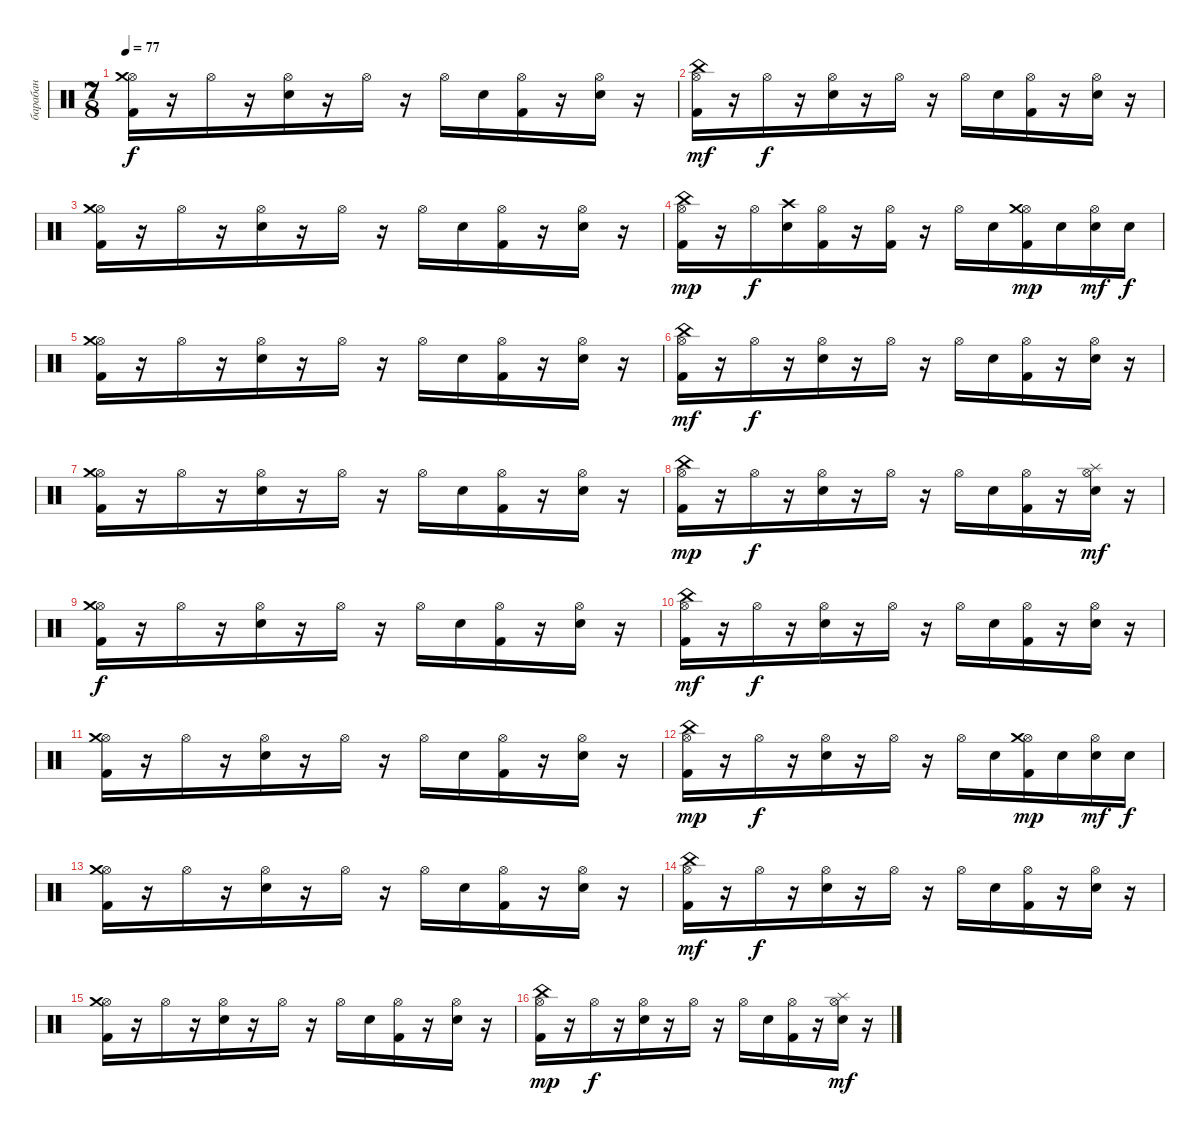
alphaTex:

\track ("барабан" "барабан") {instrument percussion}
\staff {score}
\articulation defaults
\ts (7 8)
\tempo 77
\clef neutral
\ks c
("Hi-Hat (open)" "Crash medium (hit)" "Kick (hit) 2").16{dy f} r.16 "Hi-Hat (open)".16 r.16 ("Hi-Hat (open)" "Electric Snare (hit)").16 r.16 "Hi-Hat (open)".16 r.16 "Hi-Hat (open)".16 "Electric Snare (hit)".16 ("Hi-Hat (open)" "Kick (hit) 2").16 r.16 ("Hi-Hat (open)" "Electric Snare (hit)").16 r.16 |
("Hi-Hat (open)" "China (hit)" "Kick (hit) 2").16{dy mf} r.16 "Hi-Hat (open)".16{dy f} r.16 ("Hi-Hat (open)" "Electric Snare (hit)").16 r.16 "Hi-Hat (open)".16 r.16 "Hi-Hat (open)".16 "Electric Snare (hit)".16 ("Hi-Hat (open)" "Kick (hit) 2").16 r.16 ("Hi-Hat (open)" "Electric Snare (hit)").16 r.16 |
("Hi-Hat (open)" "Crash medium (hit)" "Kick (hit) 2").16 r.16 "Hi-Hat (open)".16 r.16 ("Hi-Hat (open)" "Electric Snare (hit)").16 r.16 "Hi-Hat (open)".16 r.16 "Hi-Hat (open)".16 "Electric Snare (hit)".16 ("Hi-Hat (open)" "Kick (hit) 2").16 r.16 ("Hi-Hat (open)" "Electric Snare (hit)").16 r.16 |
("Hi-Hat (open)" "China (hit)" "Kick (hit) 2").16{dy mp} r.16 "Hi-Hat (open)".16{dy f} ("Crash high (hit)" "Electric Snare (hit)").16 ("Hi-Hat (open)" "Kick (hit) 2").16 r.16 ("Hi-Hat (open)" "Kick (hit) 2").16 r.16 "Hi-Hat (open)".16 "Electric Snare (hit)".16 ("Hi-Hat (open)" "Crash medium (hit)" "Kick (hit) 2").16{dy mp} "Electric Snare (hit)".16 ("Hi-Hat (open)" "Electric Snare (hit)").16{dy mf} "Electric Snare (hit)".16{dy f} |
("Hi-Hat (open)" "Crash medium (hit)" "Kick (hit) 2").16 r.16 "Hi-Hat (open)".16 r.16 ("Hi-Hat (open)" "Electric Snare (hit)").16 r.16 "Hi-Hat (open)".16 r.16 "Hi-Hat (open)".16 "Electric Snare (hit)".16 ("Hi-Hat (open)" "Kick (hit) 2").16 r.16 ("Hi-Hat (open)" "Electric Snare (hit)").16 r.16 |
("Hi-Hat (open)" "China (hit)" "Kick (hit) 2").16{dy mf} r.16 "Hi-Hat (open)".16{dy f} r.16 ("Hi-Hat (open)" "Electric Snare (hit)").16 r.16 "Hi-Hat (open)".16 r.16 "Hi-Hat (open)".16 "Electric Snare (hit)".16 ("Hi-Hat (open)" "Kick (hit) 2").16 r.16 ("Hi-Hat (open)" "Electric Snare (hit)").16 r.16 |
("Hi-Hat (open)" "Crash medium (hit)" "Kick (hit) 2").16 r.16 "Hi-Hat (open)".16 r.16 ("Hi-Hat (open)" "Electric Snare (hit)").16 r.16 "Hi-Hat (open)".16 r.16 "Hi-Hat (open)".16 "Electric Snare (hit)".16 ("Hi-Hat (open)" "Kick (hit) 2").16 r.16 ("Hi-Hat (open)" "Electric Snare (hit)").16 r.16 |
("Hi-Hat (open)" "China (hit)" "Kick (hit) 2").16{dy mp} r.16 "Hi-Hat (open)".16{dy f} r.16 ("Hi-Hat (open)" "Electric Snare (hit)").16 r.16 "Hi-Hat (open)".16 r.16 "Hi-Hat (open)".16 "Electric Snare (hit)".16 ("Hi-Hat (open)" "Kick (hit) 2").16 r.16 ("Hi-Hat (open)" "Splash (hit)" "Electric Snare (hit)").16{dy mf} r.16 |
("Hi-Hat (open)" "Crash medium (hit)" "Kick (hit) 2").16{dy f} r.16 "Hi-Hat (open)".16 r.16 ("Hi-Hat (open)" "Electric Snare (hit)").16 r.16 "Hi-Hat (open)".16 r.16 "Hi-Hat (open)".16 "Electric Snare (hit)".16 ("Hi-Hat (open)" "Kick (hit) 2").16 r.16 ("Hi-Hat (open)" "Electric Snare (hit)").16 r.16 |
("Hi-Hat (open)" "China (hit)" "Kick (hit) 2").16{dy mf} r.16 "Hi-Hat (open)".16{dy f} r.16 ("Hi-Hat (open)" "Electric Snare (hit)").16 r.16 "Hi-Hat (open)".16 r.16 "Hi-Hat (open)".16 "Electric Snare (hit)".16 ("Hi-Hat (open)" "Kick (hit) 2").16 r.16 ("Hi-Hat (open)" "Electric Snare (hit)").16 r.16 |
("Hi-Hat (open)" "Crash medium (hit)" "Kick (hit) 2").16 r.16 "Hi-Hat (open)".16 r.16 ("Hi-Hat (open)" "Electric Snare (hit)").16 r.16 "Hi-Hat (open)".16 r.16 "Hi-Hat (open)".16 "Electric Snare (hit)".16 ("Hi-Hat (open)" "Kick (hit) 2").16 r.16 ("Hi-Hat (open)" "Electric Snare (hit)").16 r.16 |
("Hi-Hat (open)" "China (hit)" "Kick (hit) 2").16{dy mp} r.16 "Hi-Hat (open)".16{dy f} r.16 ("Hi-Hat (open)" "Electric Snare (hit)").16 r.16 "Hi-Hat (open)".16 r.16 "Hi-Hat (open)".16 "Electric Snare (hit)".16 ("Hi-Hat (open)" "Crash medium (hit)" "Kick (hit) 2").16{dy mp} "Electric Snare (hit)".16 ("Hi-Hat (open)" "Electric Snare (hit)").16{dy mf} "Electric Snare (hit)".16{dy f} |
("Hi-Hat (open)" "Crash medium (hit)" "Kick (hit) 2").16 r.16 "Hi-Hat (open)".16 r.16 ("Hi-Hat (open)" "Electric Snare (hit)").16 r.16 "Hi-Hat (open)".16 r.16 "Hi-Hat (open)".16 "Electric Snare (hit)".16 ("Hi-Hat (open)" "Kick (hit) 2").16 r.16 ("Hi-Hat (open)" "Electric Snare (hit)").16 r.16 |
("Hi-Hat (open)" "China (hit)" "Kick (hit) 2").16{dy mf} r.16 "Hi-Hat (open)".16{dy f} r.16 ("Hi-Hat (open)" "Electric Snare (hit)").16 r.16 "Hi-Hat (open)".16 r.16 "Hi-Hat (open)".16 "Electric Snare (hit)".16 ("Hi-Hat (open)" "Kick (hit) 2").16 r.16 ("Hi-Hat (open)" "Electric Snare (hit)").16 r.16 |
("Hi-Hat (open)" "Crash medium (hit)" "Kick (hit) 2").16 r.16 "Hi-Hat (open)".16 r.16 ("Hi-Hat (open)" "Electric Snare (hit)").16 r.16 "Hi-Hat (open)".16 r.16 "Hi-Hat (open)".16 "Electric Snare (hit)".16 ("Hi-Hat (open)" "Kick (hit) 2").16 r.16 ("Hi-Hat (open)" "Electric Snare (hit)").16 r.16 |
("Hi-Hat (open)" "China (hit)" "Kick (hit) 2").16{dy mp} r.16 "Hi-Hat (open)".16{dy f} r.16 ("Hi-Hat (open)" "Electric Snare (hit)").16 r.16 "Hi-Hat (open)".16 r.16 "Hi-Hat (open)".16 "Electric Snare (hit)".16 ("Hi-Hat (open)" "Kick (hit) 2").16 r.16 ("Hi-Hat (open)" "Splash (hit)" "Electric Snare (hit)").16{dy mf} r.16
